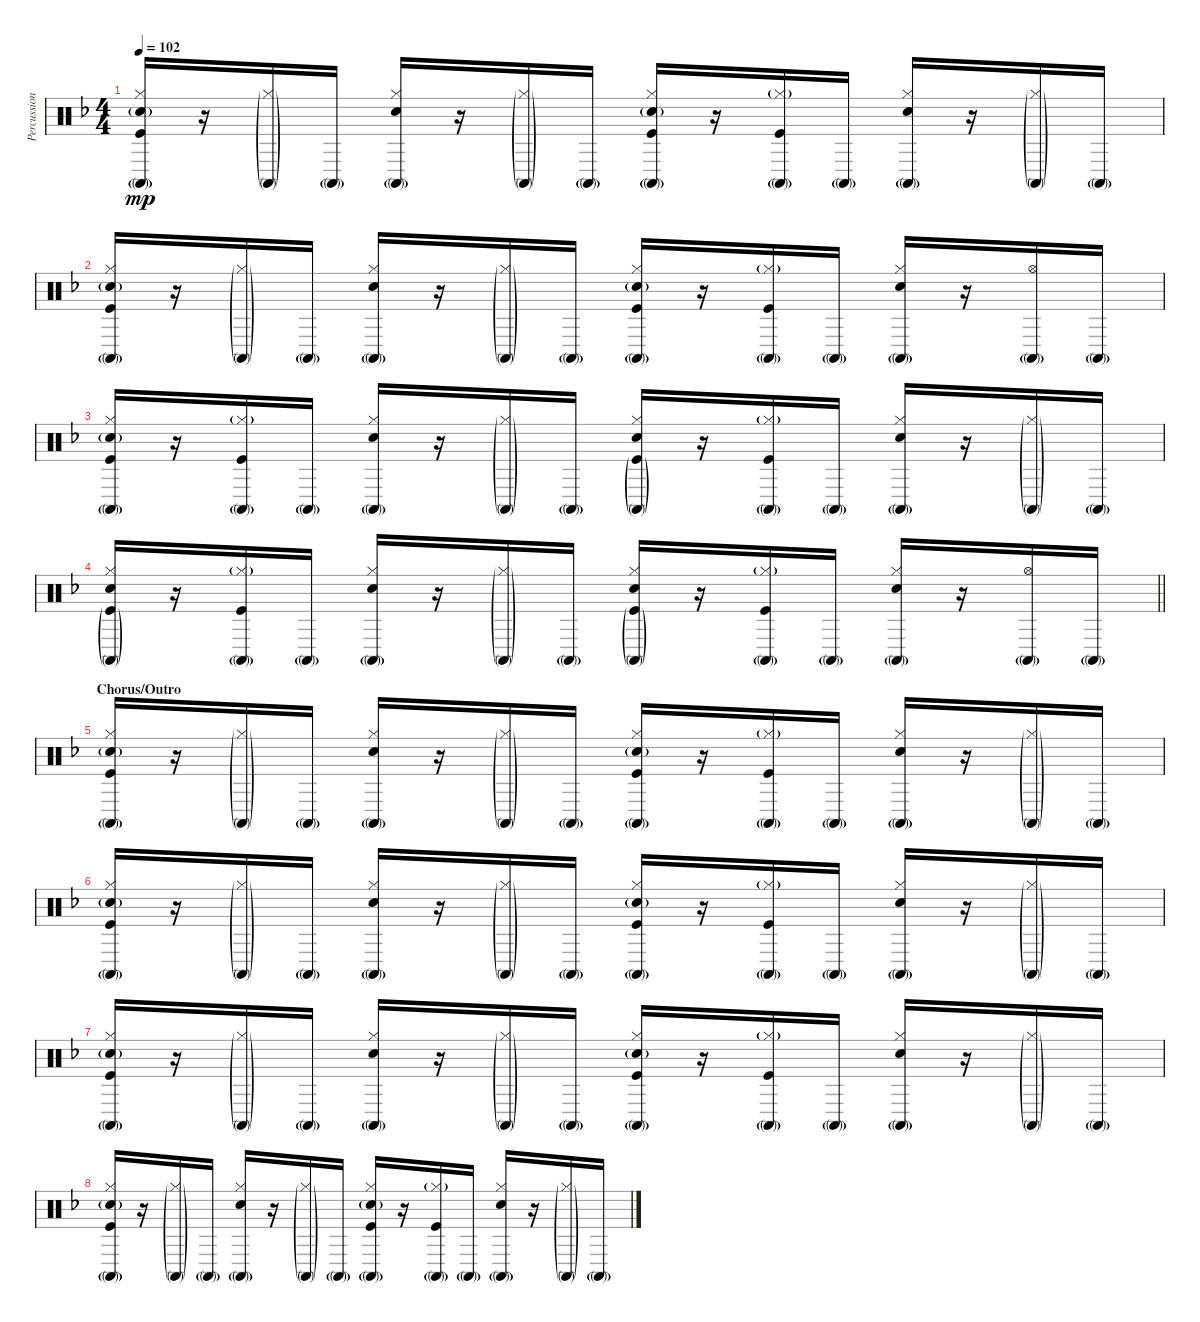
\track ("Percussion" "Percussion") {instrument percussion bank 255}
\staff {score}
\articulation defaults
\ts (4 4)
\tempo 102
\clef neutral
\ks f
("Conga high (mute)"{g} "Hi-Hat (closed)" "Snare (hit) 2"{g} "Kick (hit)").16{dy mp} r.16 ("Conga high (mute)"{g} "Hi-Hat (closed)"{g}).16 "Conga high (mute)"{g}.16 ("Conga high (mute)"{g} "Hi-Hat (closed)" "Snare (hit) 2").16 r.16 ("Conga high (mute)"{g} "Hi-Hat (closed)"{g}).16 "Conga high (mute)"{g}.16 ("Conga high (mute)"{g} "Hi-Hat (closed)" "Snare (hit) 2"{g} "Kick (hit)").16 r.16 ("Conga high (mute)"{g} "Hi-Hat (closed)"{g} "Kick (hit)").16 "Conga high (mute)"{g}.16 ("Conga high (mute)"{g} "Hi-Hat (closed)" "Snare (hit) 2").16 r.16 ("Conga high (mute)"{g} "Hi-Hat (closed)"{g}).16 "Conga high (mute)"{g}.16 |
("Conga high (mute)"{g} "Hi-Hat (closed)" "Snare (hit) 2"{g} "Kick (hit)").16 r.16 ("Conga high (mute)"{g} "Hi-Hat (closed)"{g}).16 "Conga high (mute)"{g}.16 ("Conga high (mute)"{g} "Hi-Hat (closed)" "Snare (hit) 2").16 r.16 ("Conga high (mute)"{g} "Hi-Hat (closed)"{g}).16 "Conga high (mute)"{g}.16 ("Conga high (mute)"{g} "Hi-Hat (closed)" "Snare (hit) 2"{g} "Kick (hit)").16 r.16 ("Conga high (mute)"{g} "Hi-Hat (closed)"{g} "Kick (hit)").16 "Conga high (mute)"{g}.16 ("Conga high (mute)"{g} "Hi-Hat (closed)" "Snare (hit) 2").16 r.16 ("Conga high (mute)"{g} "Hi-Hat (open)").16 "Conga high (mute)"{g}.16 |
("Conga high (mute)"{g} "Hi-Hat (closed)" "Snare (hit) 2"{g} "Kick (hit)").16 r.16 ("Conga high (mute)"{g} "Hi-Hat (closed)"{g} "Kick (hit)").16 "Conga high (mute)"{g}.16 ("Conga high (mute)"{g} "Hi-Hat (closed)" "Snare (hit) 2").16 r.16 ("Conga high (mute)"{g} "Hi-Hat (closed)"{g}).16 "Conga high (mute)"{g}.16 ("Conga high (mute)"{g} "Hi-Hat (closed)" "Snare (hit) 2" "Kick (hit)"{g}).16 r.16 ("Conga high (mute)"{g} "Hi-Hat (closed)"{g} "Kick (hit)").16 "Conga high (mute)"{g}.16 ("Conga high (mute)"{g} "Hi-Hat (closed)" "Snare (hit) 2").16 r.16 ("Conga high (mute)"{g} "Hi-Hat (closed)"{g}).16 "Conga high (mute)"{g}.16 |
\barLineRight lightlight
("Conga high (mute)"{g} "Hi-Hat (closed)" "Snare (hit) 2" "Kick (hit)"{g}).16 r.16 ("Conga high (mute)"{g} "Hi-Hat (closed)"{g} "Kick (hit)").16 "Conga high (mute)"{g}.16 ("Conga high (mute)"{g} "Hi-Hat (closed)" "Snare (hit) 2").16 r.16 ("Conga high (mute)"{g} "Hi-Hat (closed)"{g}).16 "Conga high (mute)"{g}.16 ("Conga high (mute)"{g} "Hi-Hat (closed)" "Snare (hit) 2" "Kick (hit)"{g}).16 r.16 ("Conga high (mute)"{g} "Hi-Hat (closed)"{g} "Kick (hit)").16 "Conga high (mute)"{g}.16 ("Conga high (mute)"{g} "Hi-Hat (closed)" "Snare (hit) 2").16 r.16 ("Conga high (mute)"{g} "Hi-Hat (open)").16 "Conga high (mute)"{g}.16 |
\section ("" "Chorus/Outro")
("Conga high (mute)"{g} "Hi-Hat (closed)" "Snare (hit) 2"{g} "Kick (hit)").16 r.16 ("Conga high (mute)"{g} "Hi-Hat (closed)"{g}).16 "Conga high (mute)"{g}.16 ("Conga high (mute)"{g} "Hi-Hat (closed)" "Snare (hit) 2").16 r.16 ("Conga high (mute)"{g} "Hi-Hat (closed)"{g}).16 "Conga high (mute)"{g}.16 ("Conga high (mute)"{g} "Hi-Hat (closed)" "Snare (hit) 2"{g} "Kick (hit)").16 r.16 ("Conga high (mute)"{g} "Hi-Hat (closed)"{g} "Kick (hit)").16 "Conga high (mute)"{g}.16 ("Conga high (mute)"{g} "Hi-Hat (closed)" "Snare (hit) 2").16 r.16 ("Conga high (mute)"{g} "Hi-Hat (closed)"{g}).16 "Conga high (mute)"{g}.16 |
("Conga high (mute)"{g} "Hi-Hat (closed)" "Snare (hit) 2"{g} "Kick (hit)").16 r.16 ("Conga high (mute)"{g} "Hi-Hat (closed)"{g}).16 "Conga high (mute)"{g}.16 ("Conga high (mute)"{g} "Hi-Hat (closed)" "Snare (hit) 2").16 r.16 ("Conga high (mute)"{g} "Hi-Hat (closed)"{g}).16 "Conga high (mute)"{g}.16 ("Conga high (mute)"{g} "Hi-Hat (closed)" "Snare (hit) 2"{g} "Kick (hit)").16 r.16 ("Conga high (mute)"{g} "Hi-Hat (closed)"{g} "Kick (hit)").16 "Conga high (mute)"{g}.16 ("Conga high (mute)"{g} "Hi-Hat (closed)" "Snare (hit) 2").16 r.16 ("Conga high (mute)"{g} "Hi-Hat (closed)"{g}).16 "Conga high (mute)"{g}.16 |
("Conga high (mute)"{g} "Hi-Hat (closed)" "Snare (hit) 2"{g} "Kick (hit)").16 r.16 ("Conga high (mute)"{g} "Hi-Hat (closed)"{g}).16 "Conga high (mute)"{g}.16 ("Conga high (mute)"{g} "Hi-Hat (closed)" "Snare (hit) 2").16 r.16 ("Conga high (mute)"{g} "Hi-Hat (closed)"{g}).16 "Conga high (mute)"{g}.16 ("Conga high (mute)"{g} "Hi-Hat (closed)" "Snare (hit) 2"{g} "Kick (hit)").16 r.16 ("Conga high (mute)"{g} "Hi-Hat (closed)"{g} "Kick (hit)").16 "Conga high (mute)"{g}.16 ("Conga high (mute)"{g} "Hi-Hat (closed)" "Snare (hit) 2").16 r.16 ("Conga high (mute)"{g} "Hi-Hat (closed)"{g}).16 "Conga high (mute)"{g}.16 |
("Conga high (mute)"{g} "Hi-Hat (closed)" "Snare (hit) 2"{g} "Kick (hit)").16 r.16 ("Conga high (mute)"{g} "Hi-Hat (closed)"{g}).16 "Conga high (mute)"{g}.16 ("Conga high (mute)"{g} "Hi-Hat (closed)" "Snare (hit) 2").16 r.16 ("Conga high (mute)"{g} "Hi-Hat (closed)"{g}).16 "Conga high (mute)"{g}.16 ("Conga high (mute)"{g} "Hi-Hat (closed)" "Snare (hit) 2"{g} "Kick (hit)").16 r.16 ("Conga high (mute)"{g} "Hi-Hat (closed)"{g} "Kick (hit)").16 "Conga high (mute)"{g}.16 ("Conga high (mute)"{g} "Hi-Hat (closed)" "Snare (hit) 2").16 r.16 ("Conga high (mute)"{g} "Hi-Hat (closed)"{g}).16 "Conga high (mute)"{g}.16
